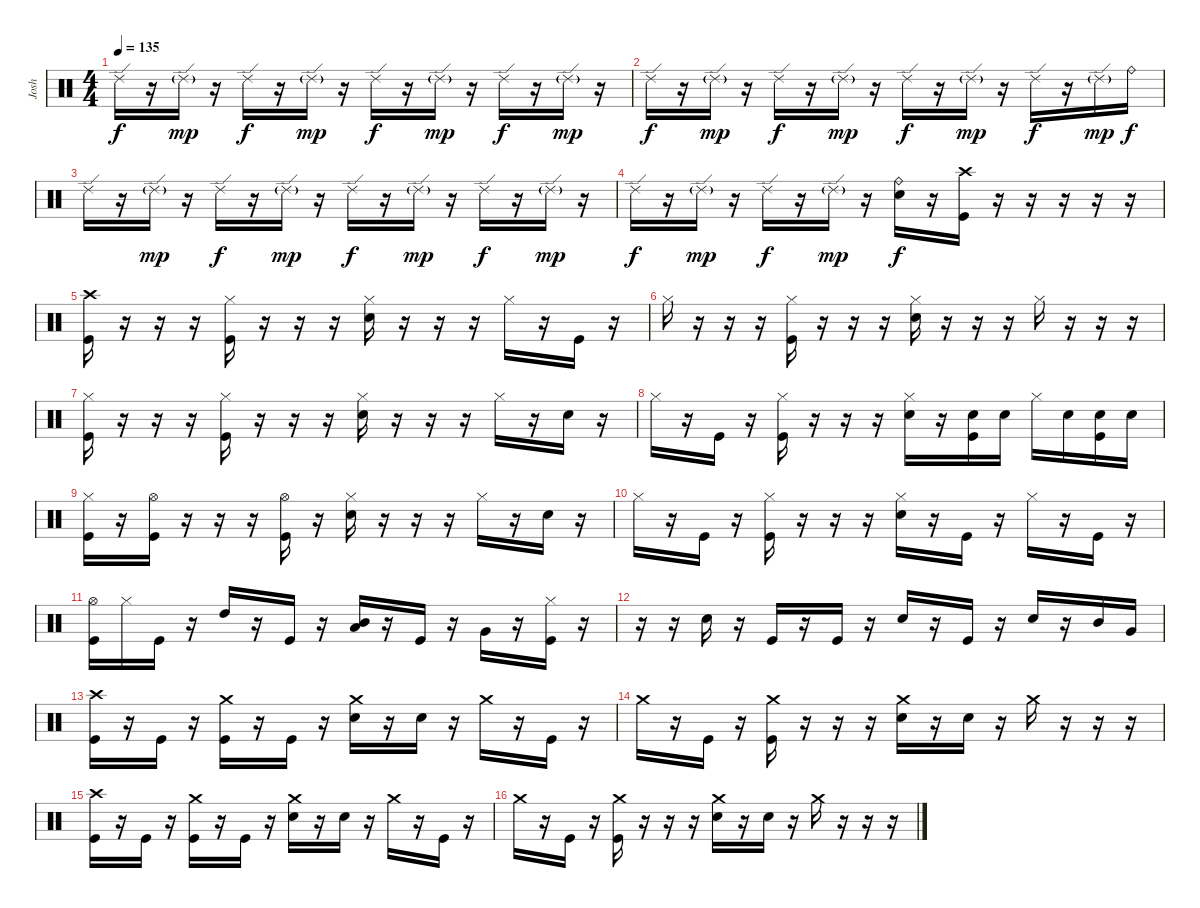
\track ("Josh" "Josh") {instrument percussion}
\staff {score}
\articulation defaults
\ts (4 4)
\tempo 135
\clef neutral
\ks c "Ride (edge) 2".16{dy f}
r.16 "Ride (edge) 2"{g}.16{dy mp} r.16 "Ride (edge) 2".16{dy f} r.16 "Ride (edge) 2"{g}.16{dy mp} r.16 "Ride (edge) 2".16{dy f} r.16 "Ride (edge) 2"{g}.16{dy mp} r.16 "Ride (edge) 2".16{dy f} r.16 "Ride (edge) 2"{g}.16{dy mp} r.16 |
"Ride (edge) 2".16{dy f} r.16 "Ride (edge) 2"{g}.16{dy mp} r.16 "Ride (edge) 2".16{dy f} r.16 "Ride (edge) 2"{g}.16{dy mp} r.16 "Ride (edge) 2".16{dy f} r.16 "Ride (edge) 2"{g}.16{dy mp} r.16 "Ride (edge) 2".16{dy f} r.16 "Ride (edge) 2"{g}.16{dy mp} "Ride (bell)".16{dy f} |
"Ride (edge) 2".16 r.16 "Ride (edge) 2"{g}.16{dy mp} r.16 "Ride (edge) 2".16{dy f} r.16 "Ride (edge) 2"{g}.16{dy mp} r.16 "Ride (edge) 2".16{dy f} r.16 "Ride (edge) 2"{g}.16{dy mp} r.16 "Ride (edge) 2".16{dy f} r.16 "Ride (edge) 2"{g}.16{dy mp} r.16 |
"Ride (edge) 2".16{dy f} r.16 "Ride (edge) 2"{g}.16{dy mp} r.16 "Ride (edge) 2".16{dy f} r.16 "Ride (edge) 2"{g}.16{dy mp} r.16 ("Ride (bell)" "Snare (hit) 2").16{dy f} r.16 ("Crash high (hit)" "Kick (hit)").16 r.16 r.16 r.16 r.16 r.16 |
("Crash high (hit)" "Kick (hit)").16 r.16 r.16 r.16 ("Hi-Hat (closed)" "Kick (hit)").16 r.16 r.16 r.16 ("Hi-Hat (closed)" "Snare (hit) 2").16 r.16 r.16 r.16 "Hi-Hat (closed)".16 r.16 "Kick (hit)".16 r.16 |
"Hi-Hat (closed)".16 r.16 r.16 r.16 ("Hi-Hat (closed)" "Kick (hit)").16 r.16 r.16 r.16 ("Hi-Hat (closed)" "Snare (hit) 2").16 r.16 r.16 r.16 "Hi-Hat (closed)".16 r.16 r.16 r.16 |
("Hi-Hat (closed)" "Kick (hit)").16 r.16 r.16 r.16 ("Hi-Hat (closed)" "Kick (hit)").16 r.16 r.16 r.16 ("Hi-Hat (closed)" "Snare (hit) 2").16 r.16 r.16 r.16 "Hi-Hat (closed)".16 r.16 "Snare (hit) 2".16 r.16 |
"Hi-Hat (closed)".16 r.16 "Kick (hit)".16 r.16 ("Hi-Hat (closed)" "Kick (hit)").16 r.16 r.16 r.16 ("Hi-Hat (closed)" "Snare (hit) 2").16 r.16 ("Snare (hit) 2" "Kick (hit)").16 "Snare (hit) 2".16 "Hi-Hat (closed)".16 "Snare (hit) 2".16 ("Snare (hit) 2" "Kick (hit)").16 "Snare (hit) 2".16 |
("Hi-Hat (closed)" "Kick (hit)").16 r.16 ("Hi-Hat (open)" "Kick (hit)").16 r.16 r.16 r.16 ("Hi-Hat (open)" "Kick (hit)").16 r.16 ("Hi-Hat (closed)" "Snare (hit) 2").16 r.16 r.16 r.16 "Hi-Hat (closed)".16 r.16 "Snare (hit) 2".16 r.16 |
"Hi-Hat (closed)".16 r.16 "Kick (hit)".16 r.16 ("Hi-Hat (closed)" "Kick (hit)").16 r.16 r.16 r.16 ("Hi-Hat (closed)" "Snare (hit) 2").16 r.16 "Kick (hit)".16 r.16 "Hi-Hat (closed)".16 r.16 "Kick (hit)".16 r.16 |
("Hi-Hat (open)" "Kick (hit)").16 "Hi-Hat (closed)".16 "Kick (hit)".16 r.16 "High Tom (hit)".16 r.16 "Kick (hit)".16 r.16 ("Mid Tom (hit)" "Low Tom (hit)").16 r.16 "Kick (hit)".16 r.16 "Very Low Tom (hit)".16 r.16 ("Hi-Hat (closed)" "Kick (hit)").16 r.16 |
r.16 r.16 "Snare (hit) 2".16 r.16 "Kick (hit)".16 r.16 "Kick (hit)".16 r.16 "Snare (hit) 2".16 r.16 "Kick (hit)".16 r.16 "Snare (hit) 2".16 r.16 "Mid Tom (hit)".16 "Very Low Tom (hit)".16 |
("Crash high (hit)" "Kick (hit)").16 r.16 "Kick (hit)".16 r.16 ("Crash medium (hit)" "Kick (hit)").16 r.16 "Kick (hit)".16 r.16 ("Crash medium (hit)" "Snare (hit) 2").16 r.16 "Snare (hit) 2".16 r.16 "Crash medium (hit)".16 r.16 "Kick (hit)".16 r.16 |
"Crash medium (hit)".16 r.16 "Kick (hit)".16 r.16 ("Crash medium (hit)" "Kick (hit)").16 r.16 r.16 r.16 ("Crash medium (hit)" "Snare (hit) 2").16 r.16 "Snare (hit) 2".16 r.16 "Crash medium (hit)".16 r.16 r.16 r.16 |
("Crash high (hit)" "Kick (hit)").16 r.16 "Kick (hit)".16 r.16 ("Crash medium (hit)" "Kick (hit)").16 r.16 "Kick (hit)".16 r.16 ("Crash medium (hit)" "Snare (hit) 2").16 r.16 "Snare (hit) 2".16 r.16 "Crash medium (hit)".16 r.16 "Kick (hit)".16 r.16 |
"Crash medium (hit)".16 r.16 "Kick (hit)".16 r.16 ("Crash medium (hit)" "Kick (hit)").16 r.16 r.16 r.16 ("Crash medium (hit)" "Snare (hit) 2").16 r.16 "Snare (hit) 2".16 r.16 "Crash medium (hit)".16 r.16 r.16 r.16
